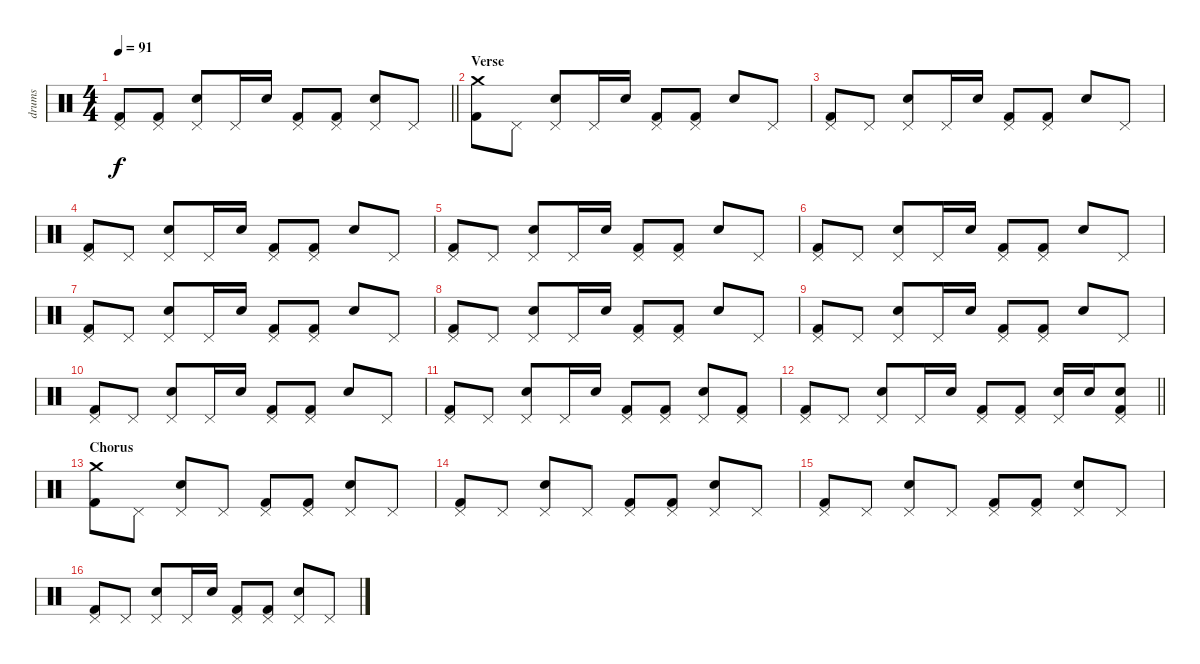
\track ("drums" "drums") {instrument percussion}
\staff {score}
\articulation defaults
\ts (4 4)
\tempo 91
\clef neutral
\barLineRight lightlight
\ks c
("Pedal Hi-Hat (hit)" "Kick (hit) 2").8{dy f} ("Pedal Hi-Hat (hit)" "Kick (hit) 2").8 ("Pedal Hi-Hat (hit)" "Electric Snare (hit)").8 "Pedal Hi-Hat (hit)".16 "Electric Snare (hit)".16 ("Pedal Hi-Hat (hit)" "Kick (hit) 2").8 ("Pedal Hi-Hat (hit)" "Kick (hit) 2").8 ("Pedal Hi-Hat (hit)" "Electric Snare (hit)").8 "Pedal Hi-Hat (hit)".8 |
\section ("" "Verse")
("Crash medium (hit)" "Kick (hit) 2").8 "Pedal Hi-Hat (hit)".8 ("Pedal Hi-Hat (hit)" "Electric Snare (hit)").8 "Pedal Hi-Hat (hit)".16 "Electric Snare (hit)".16 ("Pedal Hi-Hat (hit)" "Kick (hit) 2").8 ("Pedal Hi-Hat (hit)" "Kick (hit) 2").8 "Electric Snare (hit)".8 "Pedal Hi-Hat (hit)".8 |
("Pedal Hi-Hat (hit)" "Kick (hit) 2").8 "Pedal Hi-Hat (hit)".8 ("Pedal Hi-Hat (hit)" "Electric Snare (hit)").8 "Pedal Hi-Hat (hit)".16 "Electric Snare (hit)".16 ("Pedal Hi-Hat (hit)" "Kick (hit) 2").8 ("Pedal Hi-Hat (hit)" "Kick (hit) 2").8 "Electric Snare (hit)".8 "Pedal Hi-Hat (hit)".8 |
("Pedal Hi-Hat (hit)" "Kick (hit) 2").8 "Pedal Hi-Hat (hit)".8 ("Pedal Hi-Hat (hit)" "Electric Snare (hit)").8 "Pedal Hi-Hat (hit)".16 "Electric Snare (hit)".16 ("Pedal Hi-Hat (hit)" "Kick (hit) 2").8 ("Pedal Hi-Hat (hit)" "Kick (hit) 2").8 "Electric Snare (hit)".8 "Pedal Hi-Hat (hit)".8 |
("Pedal Hi-Hat (hit)" "Kick (hit) 2").8 "Pedal Hi-Hat (hit)".8 ("Pedal Hi-Hat (hit)" "Electric Snare (hit)").8 "Pedal Hi-Hat (hit)".16 "Electric Snare (hit)".16 ("Pedal Hi-Hat (hit)" "Kick (hit) 2").8 ("Pedal Hi-Hat (hit)" "Kick (hit) 2").8 "Electric Snare (hit)".8 "Pedal Hi-Hat (hit)".8 |
("Pedal Hi-Hat (hit)" "Kick (hit) 2").8 "Pedal Hi-Hat (hit)".8 ("Pedal Hi-Hat (hit)" "Electric Snare (hit)").8 "Pedal Hi-Hat (hit)".16 "Electric Snare (hit)".16 ("Pedal Hi-Hat (hit)" "Kick (hit) 2").8 ("Pedal Hi-Hat (hit)" "Kick (hit) 2").8 "Electric Snare (hit)".8 "Pedal Hi-Hat (hit)".8 |
("Pedal Hi-Hat (hit)" "Kick (hit) 2").8 "Pedal Hi-Hat (hit)".8 ("Pedal Hi-Hat (hit)" "Electric Snare (hit)").8 "Pedal Hi-Hat (hit)".16 "Electric Snare (hit)".16 ("Pedal Hi-Hat (hit)" "Kick (hit) 2").8 ("Pedal Hi-Hat (hit)" "Kick (hit) 2").8 "Electric Snare (hit)".8 "Pedal Hi-Hat (hit)".8 |
("Pedal Hi-Hat (hit)" "Kick (hit) 2").8 "Pedal Hi-Hat (hit)".8 ("Pedal Hi-Hat (hit)" "Electric Snare (hit)").8 "Pedal Hi-Hat (hit)".16 "Electric Snare (hit)".16 ("Pedal Hi-Hat (hit)" "Kick (hit) 2").8 ("Pedal Hi-Hat (hit)" "Kick (hit) 2").8 "Electric Snare (hit)".8 "Pedal Hi-Hat (hit)".8 |
("Pedal Hi-Hat (hit)" "Kick (hit) 2").8 "Pedal Hi-Hat (hit)".8 ("Pedal Hi-Hat (hit)" "Electric Snare (hit)").8 "Pedal Hi-Hat (hit)".16 "Electric Snare (hit)".16 ("Pedal Hi-Hat (hit)" "Kick (hit) 2").8 ("Pedal Hi-Hat (hit)" "Kick (hit) 2").8 "Electric Snare (hit)".8 "Pedal Hi-Hat (hit)".8 |
("Pedal Hi-Hat (hit)" "Kick (hit) 2").8 "Pedal Hi-Hat (hit)".8 ("Pedal Hi-Hat (hit)" "Electric Snare (hit)").8 "Pedal Hi-Hat (hit)".16 "Electric Snare (hit)".16 ("Pedal Hi-Hat (hit)" "Kick (hit) 2").8 ("Pedal Hi-Hat (hit)" "Kick (hit) 2").8 "Electric Snare (hit)".8 "Pedal Hi-Hat (hit)".8 |
("Pedal Hi-Hat (hit)" "Kick (hit) 2").8 "Pedal Hi-Hat (hit)".8 ("Pedal Hi-Hat (hit)" "Electric Snare (hit)").8 "Pedal Hi-Hat (hit)".16 "Electric Snare (hit)".16 ("Pedal Hi-Hat (hit)" "Kick (hit) 2").8 ("Pedal Hi-Hat (hit)" "Kick (hit) 2").8 ("Pedal Hi-Hat (hit)" "Electric Snare (hit)").8 ("Pedal Hi-Hat (hit)" "Kick (hit) 2").8 |
\barLineRight lightlight
("Pedal Hi-Hat (hit)" "Kick (hit) 2").8 "Pedal Hi-Hat (hit)".8 ("Pedal Hi-Hat (hit)" "Electric Snare (hit)").8 "Pedal Hi-Hat (hit)".16 "Electric Snare (hit)".16 ("Pedal Hi-Hat (hit)" "Kick (hit) 2").8 ("Pedal Hi-Hat (hit)" "Kick (hit) 2").8 ("Pedal Hi-Hat (hit)" "Electric Snare (hit)").16 "Electric Snare (hit)".16 ("Pedal Hi-Hat (hit)" "Electric Snare (hit)" "Kick (hit) 2").8 |
\section ("" "Chorus")
("Crash medium (hit)" "Kick (hit) 2").8 "Pedal Hi-Hat (hit)".8 ("Pedal Hi-Hat (hit)" "Electric Snare (hit)").8 "Pedal Hi-Hat (hit)".8 ("Pedal Hi-Hat (hit)" "Kick (hit) 2").8 ("Pedal Hi-Hat (hit)" "Kick (hit) 2").8 ("Pedal Hi-Hat (hit)" "Electric Snare (hit)").8 "Pedal Hi-Hat (hit)".8 |
("Pedal Hi-Hat (hit)" "Kick (hit) 2").8 "Pedal Hi-Hat (hit)".8 ("Pedal Hi-Hat (hit)" "Electric Snare (hit)").8 "Pedal Hi-Hat (hit)".8 ("Pedal Hi-Hat (hit)" "Kick (hit) 2").8 ("Pedal Hi-Hat (hit)" "Kick (hit) 2").8 ("Pedal Hi-Hat (hit)" "Electric Snare (hit)").8 "Pedal Hi-Hat (hit)".8 |
("Pedal Hi-Hat (hit)" "Kick (hit) 2").8 "Pedal Hi-Hat (hit)".8 ("Pedal Hi-Hat (hit)" "Electric Snare (hit)").8 "Pedal Hi-Hat (hit)".8 ("Pedal Hi-Hat (hit)" "Kick (hit) 2").8 ("Pedal Hi-Hat (hit)" "Kick (hit) 2").8 ("Pedal Hi-Hat (hit)" "Electric Snare (hit)").8 "Pedal Hi-Hat (hit)".8 |
("Pedal Hi-Hat (hit)" "Kick (hit) 2").8 "Pedal Hi-Hat (hit)".8 ("Pedal Hi-Hat (hit)" "Electric Snare (hit)").8 "Pedal Hi-Hat (hit)".16 "Electric Snare (hit)".16 ("Pedal Hi-Hat (hit)" "Kick (hit) 2").8 ("Pedal Hi-Hat (hit)" "Kick (hit) 2").8 ("Pedal Hi-Hat (hit)" "Electric Snare (hit)").8 "Pedal Hi-Hat (hit)".8
